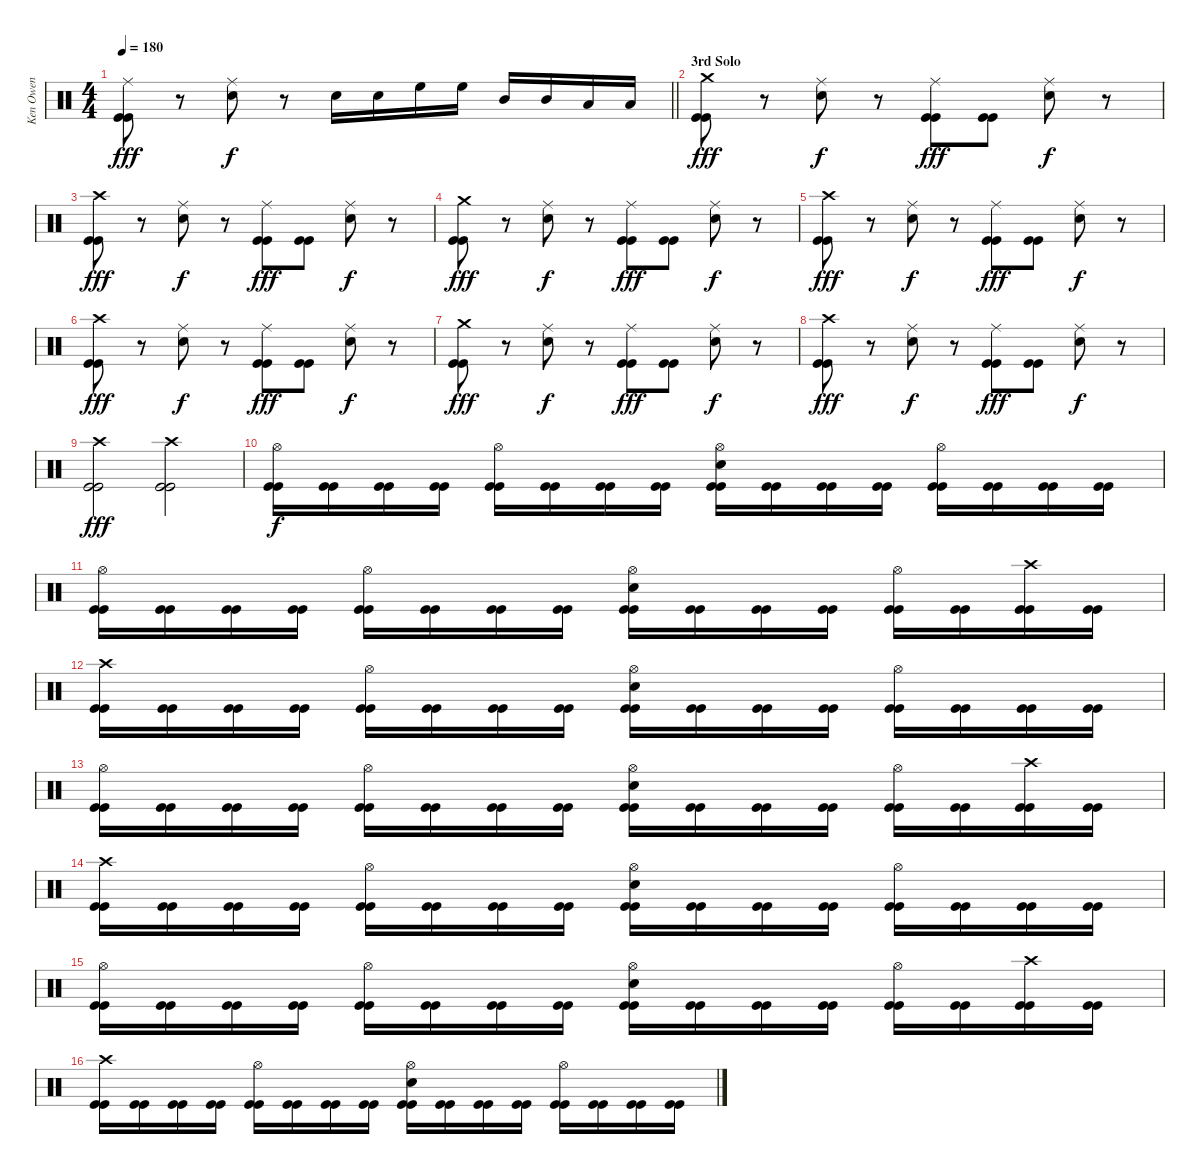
\track ("Ken Owen" "Ken Owen") {instrument percussion}
\staff {score}
\articulation defaults
\ts (4 4)
\tempo 180
\clef neutral
\barLineRight lightlight
\ks c
("Ride (middle)" "Kick (hit)" "Kick (hit)").8{dy fff} r.8 ("Ride (middle)" "Snare (hit) 2").8{dy f} r.8 "Snare (hit) 2".16 "Snare (hit) 2".16 "High Floor Tom (hit)".16 "High Floor Tom (hit)".16 "Mid Tom (hit)".16 "Mid Tom (hit)".16 "Low Tom (hit)".16 "Low Tom (hit)".16 |
\section ("" "3rd Solo")
("Crash medium (hit)" "Kick (hit)" "Kick (hit)").8{dy fff} r.8 ("Ride (middle)" "Snare (hit) 2").8{dy f} r.8 ("Ride (middle)" "Kick (hit)" "Kick (hit)").8{dy fff} ("Kick (hit)" "Kick (hit)").8 ("Ride (middle)" "Snare (hit) 2").8{dy f} r.8 |
("Crash high (hit)" "Kick (hit)" "Kick (hit)").8{dy fff} r.8 ("Ride (middle)" "Snare (hit) 2").8{dy f} r.8 ("Ride (middle)" "Kick (hit)" "Kick (hit)").8{dy fff} ("Kick (hit)" "Kick (hit)").8 ("Ride (middle)" "Snare (hit) 2").8{dy f} r.8 |
("Crash medium (hit)" "Kick (hit)" "Kick (hit)").8{dy fff} r.8 ("Ride (middle)" "Snare (hit) 2").8{dy f} r.8 ("Ride (middle)" "Kick (hit)" "Kick (hit)").8{dy fff} ("Kick (hit)" "Kick (hit)").8 ("Ride (middle)" "Snare (hit) 2").8{dy f} r.8 |
("Crash high (hit)" "Kick (hit)" "Kick (hit)").8{dy fff} r.8 ("Ride (middle)" "Snare (hit) 2").8{dy f} r.8 ("Ride (middle)" "Kick (hit)" "Kick (hit)").8{dy fff} ("Kick (hit)" "Kick (hit)").8 ("Ride (middle)" "Snare (hit) 2").8{dy f} r.8 |
("Crash high (hit)" "Kick (hit)" "Kick (hit)").8{dy fff} r.8 ("Ride (middle)" "Snare (hit) 2").8{dy f} r.8 ("Ride (middle)" "Kick (hit)" "Kick (hit)").8{dy fff} ("Kick (hit)" "Kick (hit)").8 ("Ride (middle)" "Snare (hit) 2").8{dy f} r.8 |
("Crash medium (hit)" "Kick (hit)" "Kick (hit)").8{dy fff} r.8 ("Ride (middle)" "Snare (hit) 2").8{dy f} r.8 ("Ride (middle)" "Kick (hit)" "Kick (hit)").8{dy fff} ("Kick (hit)" "Kick (hit)").8 ("Ride (middle)" "Snare (hit) 2").8{dy f} r.8 |
("Crash high (hit)" "Kick (hit)" "Kick (hit)").8{dy fff} r.8 ("Ride (middle)" "Snare (hit) 2").8{dy f} r.8 ("Ride (middle)" "Kick (hit)" "Kick (hit)").8{dy fff} ("Kick (hit)" "Kick (hit)").8 ("Ride (middle)" "Snare (hit) 2").8{dy f} r.8 |
("Crash high (hit)" "Kick (hit)" "Kick (hit)").2{dy fff} ("Crash high (hit)" "Kick (hit)" "Kick (hit)").2 |
("Hi-Hat (open)" "Kick (hit)" "Kick (hit)").16{dy f} ("Kick (hit)" "Kick (hit)").16 ("Kick (hit)" "Kick (hit)").16 ("Kick (hit)" "Kick (hit)").16 ("Hi-Hat (open)" "Kick (hit)" "Kick (hit)").16 ("Kick (hit)" "Kick (hit)").16 ("Kick (hit)" "Kick (hit)").16 ("Kick (hit)" "Kick (hit)").16 ("Hi-Hat (open)" "Snare (hit) 2" "Kick (hit)" "Kick (hit)").16 ("Kick (hit)" "Kick (hit)").16 ("Kick (hit)" "Kick (hit)").16 ("Kick (hit)" "Kick (hit)").16 ("Hi-Hat (open)" "Kick (hit)" "Kick (hit)").16 ("Kick (hit)" "Kick (hit)").16 ("Kick (hit)" "Kick (hit)").16 ("Kick (hit)" "Kick (hit)").16 |
("Hi-Hat (open)" "Kick (hit)" "Kick (hit)").16 ("Kick (hit)" "Kick (hit)").16 ("Kick (hit)" "Kick (hit)").16 ("Kick (hit)" "Kick (hit)").16 ("Hi-Hat (open)" "Kick (hit)" "Kick (hit)").16 ("Kick (hit)" "Kick (hit)").16 ("Kick (hit)" "Kick (hit)").16 ("Kick (hit)" "Kick (hit)").16 ("Hi-Hat (open)" "Snare (hit) 2" "Kick (hit)" "Kick (hit)").16 ("Kick (hit)" "Kick (hit)").16 ("Kick (hit)" "Kick (hit)").16 ("Kick (hit)" "Kick (hit)").16 ("Hi-Hat (open)" "Kick (hit)" "Kick (hit)").16 ("Kick (hit)" "Kick (hit)").16 ("Crash high (hit)" "Kick (hit)" "Kick (hit)").16 ("Kick (hit)" "Kick (hit)").16 |
("Crash high (hit)" "Kick (hit)" "Kick (hit)").16 ("Kick (hit)" "Kick (hit)").16 ("Kick (hit)" "Kick (hit)").16 ("Kick (hit)" "Kick (hit)").16 ("Hi-Hat (open)" "Kick (hit)" "Kick (hit)").16 ("Kick (hit)" "Kick (hit)").16 ("Kick (hit)" "Kick (hit)").16 ("Kick (hit)" "Kick (hit)").16 ("Hi-Hat (open)" "Snare (hit) 2" "Kick (hit)" "Kick (hit)").16 ("Kick (hit)" "Kick (hit)").16 ("Kick (hit)" "Kick (hit)").16 ("Kick (hit)" "Kick (hit)").16 ("Hi-Hat (open)" "Kick (hit)" "Kick (hit)").16 ("Kick (hit)" "Kick (hit)").16 ("Kick (hit)" "Kick (hit)").16 ("Kick (hit)" "Kick (hit)").16 |
("Hi-Hat (open)" "Kick (hit)" "Kick (hit)").16 ("Kick (hit)" "Kick (hit)").16 ("Kick (hit)" "Kick (hit)").16 ("Kick (hit)" "Kick (hit)").16 ("Hi-Hat (open)" "Kick (hit)" "Kick (hit)").16 ("Kick (hit)" "Kick (hit)").16 ("Kick (hit)" "Kick (hit)").16 ("Kick (hit)" "Kick (hit)").16 ("Hi-Hat (open)" "Snare (hit) 2" "Kick (hit)" "Kick (hit)").16 ("Kick (hit)" "Kick (hit)").16 ("Kick (hit)" "Kick (hit)").16 ("Kick (hit)" "Kick (hit)").16 ("Hi-Hat (open)" "Kick (hit)" "Kick (hit)").16 ("Kick (hit)" "Kick (hit)").16 ("Crash high (hit)" "Kick (hit)" "Kick (hit)").16 ("Kick (hit)" "Kick (hit)").16 |
("Crash high (hit)" "Kick (hit)" "Kick (hit)").16 ("Kick (hit)" "Kick (hit)").16 ("Kick (hit)" "Kick (hit)").16 ("Kick (hit)" "Kick (hit)").16 ("Hi-Hat (open)" "Kick (hit)" "Kick (hit)").16 ("Kick (hit)" "Kick (hit)").16 ("Kick (hit)" "Kick (hit)").16 ("Kick (hit)" "Kick (hit)").16 ("Hi-Hat (open)" "Snare (hit) 2" "Kick (hit)" "Kick (hit)").16 ("Kick (hit)" "Kick (hit)").16 ("Kick (hit)" "Kick (hit)").16 ("Kick (hit)" "Kick (hit)").16 ("Hi-Hat (open)" "Kick (hit)" "Kick (hit)").16 ("Kick (hit)" "Kick (hit)").16 ("Kick (hit)" "Kick (hit)").16 ("Kick (hit)" "Kick (hit)").16 |
("Hi-Hat (open)" "Kick (hit)" "Kick (hit)").16 ("Kick (hit)" "Kick (hit)").16 ("Kick (hit)" "Kick (hit)").16 ("Kick (hit)" "Kick (hit)").16 ("Hi-Hat (open)" "Kick (hit)" "Kick (hit)").16 ("Kick (hit)" "Kick (hit)").16 ("Kick (hit)" "Kick (hit)").16 ("Kick (hit)" "Kick (hit)").16 ("Hi-Hat (open)" "Snare (hit) 2" "Kick (hit)" "Kick (hit)").16 ("Kick (hit)" "Kick (hit)").16 ("Kick (hit)" "Kick (hit)").16 ("Kick (hit)" "Kick (hit)").16 ("Hi-Hat (open)" "Kick (hit)" "Kick (hit)").16 ("Kick (hit)" "Kick (hit)").16 ("Crash high (hit)" "Kick (hit)" "Kick (hit)").16 ("Kick (hit)" "Kick (hit)").16 |
("Crash high (hit)" "Kick (hit)" "Kick (hit)").16 ("Kick (hit)" "Kick (hit)").16 ("Kick (hit)" "Kick (hit)").16 ("Kick (hit)" "Kick (hit)").16 ("Hi-Hat (open)" "Kick (hit)" "Kick (hit)").16 ("Kick (hit)" "Kick (hit)").16 ("Kick (hit)" "Kick (hit)").16 ("Kick (hit)" "Kick (hit)").16 ("Hi-Hat (open)" "Snare (hit) 2" "Kick (hit)" "Kick (hit)").16 ("Kick (hit)" "Kick (hit)").16 ("Kick (hit)" "Kick (hit)").16 ("Kick (hit)" "Kick (hit)").16 ("Hi-Hat (open)" "Kick (hit)" "Kick (hit)").16 ("Kick (hit)" "Kick (hit)").16 ("Kick (hit)" "Kick (hit)").16 ("Kick (hit)" "Kick (hit)").16
